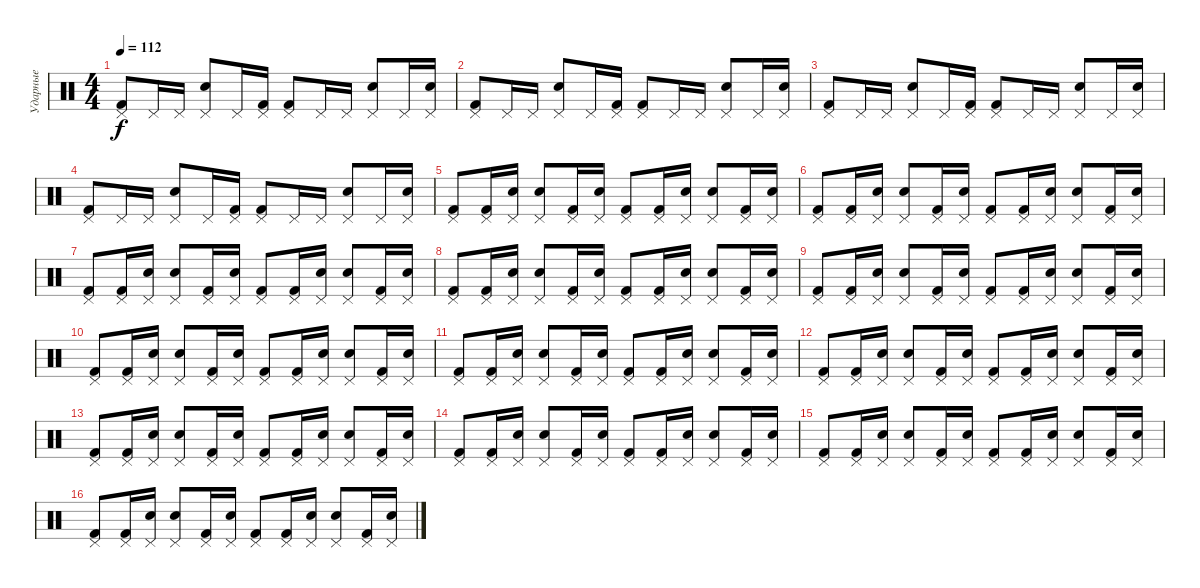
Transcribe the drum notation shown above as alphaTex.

\track ("Ударные" "Ударные") {instrument percussion}
\staff {score}
\articulation defaults
\ts (4 4)
\tempo 112
\clef neutral
\ks c
("Kick (hit) 2" "Pedal Hi-Hat (hit)").8{dy f} "Pedal Hi-Hat (hit)".16 "Pedal Hi-Hat (hit)".16 ("Pedal Hi-Hat (hit)" "Snare (hit) 2").8 "Pedal Hi-Hat (hit)".16 ("Pedal Hi-Hat (hit)" "Kick (hit) 2").16 ("Kick (hit) 2" "Pedal Hi-Hat (hit)").8 "Pedal Hi-Hat (hit)".16 "Pedal Hi-Hat (hit)".16 ("Snare (hit) 2" "Pedal Hi-Hat (hit)").8 "Pedal Hi-Hat (hit)".16 ("Pedal Hi-Hat (hit)" "Snare (hit) 2").16 |
("Kick (hit) 2" "Pedal Hi-Hat (hit)").8 "Pedal Hi-Hat (hit)".16 "Pedal Hi-Hat (hit)".16 ("Pedal Hi-Hat (hit)" "Snare (hit) 2").8 "Pedal Hi-Hat (hit)".16 ("Pedal Hi-Hat (hit)" "Kick (hit) 2").16 ("Kick (hit) 2" "Pedal Hi-Hat (hit)").8 "Pedal Hi-Hat (hit)".16 "Pedal Hi-Hat (hit)".16 ("Snare (hit) 2" "Pedal Hi-Hat (hit)").8 "Pedal Hi-Hat (hit)".16 ("Pedal Hi-Hat (hit)" "Snare (hit) 2").16 |
("Kick (hit) 2" "Pedal Hi-Hat (hit)").8 "Pedal Hi-Hat (hit)".16 "Pedal Hi-Hat (hit)".16 ("Pedal Hi-Hat (hit)" "Snare (hit) 2").8 "Pedal Hi-Hat (hit)".16 ("Pedal Hi-Hat (hit)" "Kick (hit) 2").16 ("Kick (hit) 2" "Pedal Hi-Hat (hit)").8 "Pedal Hi-Hat (hit)".16 "Pedal Hi-Hat (hit)".16 ("Snare (hit) 2" "Pedal Hi-Hat (hit)").8 "Pedal Hi-Hat (hit)".16 ("Pedal Hi-Hat (hit)" "Snare (hit) 2").16 |
("Kick (hit) 2" "Pedal Hi-Hat (hit)").8 "Pedal Hi-Hat (hit)".16 "Pedal Hi-Hat (hit)".16 ("Pedal Hi-Hat (hit)" "Snare (hit) 2").8 "Pedal Hi-Hat (hit)".16 ("Pedal Hi-Hat (hit)" "Kick (hit) 2").16 ("Kick (hit) 2" "Pedal Hi-Hat (hit)").8 "Pedal Hi-Hat (hit)".16 "Pedal Hi-Hat (hit)".16 ("Snare (hit) 2" "Pedal Hi-Hat (hit)").8 "Pedal Hi-Hat (hit)".16 ("Pedal Hi-Hat (hit)" "Snare (hit) 2").16 |
("Kick (hit) 2" "Pedal Hi-Hat (hit)").8 ("Kick (hit) 2" "Pedal Hi-Hat (hit)").16 ("Snare (hit) 2" "Pedal Hi-Hat (hit)").16 ("Snare (hit) 2" "Pedal Hi-Hat (hit)").8 ("Kick (hit) 2" "Pedal Hi-Hat (hit)").16 ("Snare (hit) 2" "Pedal Hi-Hat (hit)").16 ("Kick (hit) 2" "Pedal Hi-Hat (hit)").8 ("Kick (hit) 2" "Pedal Hi-Hat (hit)").16 ("Snare (hit) 2" "Pedal Hi-Hat (hit)").16 ("Snare (hit) 2" "Pedal Hi-Hat (hit)").8 ("Kick (hit) 2" "Pedal Hi-Hat (hit)").16 ("Snare (hit) 2" "Pedal Hi-Hat (hit)").16 |
("Kick (hit) 2" "Pedal Hi-Hat (hit)").8 ("Kick (hit) 2" "Pedal Hi-Hat (hit)").16 ("Snare (hit) 2" "Pedal Hi-Hat (hit)").16 ("Snare (hit) 2" "Pedal Hi-Hat (hit)").8 ("Kick (hit) 2" "Pedal Hi-Hat (hit)").16 ("Snare (hit) 2" "Pedal Hi-Hat (hit)").16 ("Kick (hit) 2" "Pedal Hi-Hat (hit)").8 ("Kick (hit) 2" "Pedal Hi-Hat (hit)").16 ("Snare (hit) 2" "Pedal Hi-Hat (hit)").16 ("Snare (hit) 2" "Pedal Hi-Hat (hit)").8 ("Kick (hit) 2" "Pedal Hi-Hat (hit)").16 ("Snare (hit) 2" "Pedal Hi-Hat (hit)").16 |
("Kick (hit) 2" "Pedal Hi-Hat (hit)").8 ("Kick (hit) 2" "Pedal Hi-Hat (hit)").16 ("Snare (hit) 2" "Pedal Hi-Hat (hit)").16 ("Snare (hit) 2" "Pedal Hi-Hat (hit)").8 ("Kick (hit) 2" "Pedal Hi-Hat (hit)").16 ("Snare (hit) 2" "Pedal Hi-Hat (hit)").16 ("Kick (hit) 2" "Pedal Hi-Hat (hit)").8 ("Kick (hit) 2" "Pedal Hi-Hat (hit)").16 ("Snare (hit) 2" "Pedal Hi-Hat (hit)").16 ("Snare (hit) 2" "Pedal Hi-Hat (hit)").8 ("Kick (hit) 2" "Pedal Hi-Hat (hit)").16 ("Snare (hit) 2" "Pedal Hi-Hat (hit)").16 |
("Kick (hit) 2" "Pedal Hi-Hat (hit)").8 ("Kick (hit) 2" "Pedal Hi-Hat (hit)").16 ("Snare (hit) 2" "Pedal Hi-Hat (hit)").16 ("Snare (hit) 2" "Pedal Hi-Hat (hit)").8 ("Kick (hit) 2" "Pedal Hi-Hat (hit)").16 ("Snare (hit) 2" "Pedal Hi-Hat (hit)").16 ("Kick (hit) 2" "Pedal Hi-Hat (hit)").8 ("Kick (hit) 2" "Pedal Hi-Hat (hit)").16 ("Snare (hit) 2" "Pedal Hi-Hat (hit)").16 ("Snare (hit) 2" "Pedal Hi-Hat (hit)").8 ("Kick (hit) 2" "Pedal Hi-Hat (hit)").16 ("Snare (hit) 2" "Pedal Hi-Hat (hit)").16 |
("Kick (hit) 2" "Pedal Hi-Hat (hit)").8 ("Kick (hit) 2" "Pedal Hi-Hat (hit)").16 ("Snare (hit) 2" "Pedal Hi-Hat (hit)").16 ("Snare (hit) 2" "Pedal Hi-Hat (hit)").8 ("Kick (hit) 2" "Pedal Hi-Hat (hit)").16 ("Snare (hit) 2" "Pedal Hi-Hat (hit)").16 ("Kick (hit) 2" "Pedal Hi-Hat (hit)").8 ("Kick (hit) 2" "Pedal Hi-Hat (hit)").16 ("Snare (hit) 2" "Pedal Hi-Hat (hit)").16 ("Snare (hit) 2" "Pedal Hi-Hat (hit)").8 ("Kick (hit) 2" "Pedal Hi-Hat (hit)").16 ("Snare (hit) 2" "Pedal Hi-Hat (hit)").16 |
("Kick (hit) 2" "Pedal Hi-Hat (hit)").8 ("Kick (hit) 2" "Pedal Hi-Hat (hit)").16 ("Snare (hit) 2" "Pedal Hi-Hat (hit)").16 ("Snare (hit) 2" "Pedal Hi-Hat (hit)").8 ("Kick (hit) 2" "Pedal Hi-Hat (hit)").16 ("Snare (hit) 2" "Pedal Hi-Hat (hit)").16 ("Kick (hit) 2" "Pedal Hi-Hat (hit)").8 ("Kick (hit) 2" "Pedal Hi-Hat (hit)").16 ("Snare (hit) 2" "Pedal Hi-Hat (hit)").16 ("Snare (hit) 2" "Pedal Hi-Hat (hit)").8 ("Kick (hit) 2" "Pedal Hi-Hat (hit)").16 ("Snare (hit) 2" "Pedal Hi-Hat (hit)").16 |
("Kick (hit) 2" "Pedal Hi-Hat (hit)").8 ("Kick (hit) 2" "Pedal Hi-Hat (hit)").16 ("Snare (hit) 2" "Pedal Hi-Hat (hit)").16 ("Snare (hit) 2" "Pedal Hi-Hat (hit)").8 ("Kick (hit) 2" "Pedal Hi-Hat (hit)").16 ("Snare (hit) 2" "Pedal Hi-Hat (hit)").16 ("Kick (hit) 2" "Pedal Hi-Hat (hit)").8 ("Kick (hit) 2" "Pedal Hi-Hat (hit)").16 ("Snare (hit) 2" "Pedal Hi-Hat (hit)").16 ("Snare (hit) 2" "Pedal Hi-Hat (hit)").8 ("Kick (hit) 2" "Pedal Hi-Hat (hit)").16 ("Snare (hit) 2" "Pedal Hi-Hat (hit)").16 |
("Kick (hit) 2" "Pedal Hi-Hat (hit)").8 ("Kick (hit) 2" "Pedal Hi-Hat (hit)").16 ("Snare (hit) 2" "Pedal Hi-Hat (hit)").16 ("Snare (hit) 2" "Pedal Hi-Hat (hit)").8 ("Kick (hit) 2" "Pedal Hi-Hat (hit)").16 ("Snare (hit) 2" "Pedal Hi-Hat (hit)").16 ("Kick (hit) 2" "Pedal Hi-Hat (hit)").8 ("Kick (hit) 2" "Pedal Hi-Hat (hit)").16 ("Snare (hit) 2" "Pedal Hi-Hat (hit)").16 ("Snare (hit) 2" "Pedal Hi-Hat (hit)").8 ("Kick (hit) 2" "Pedal Hi-Hat (hit)").16 ("Snare (hit) 2" "Pedal Hi-Hat (hit)").16 |
("Kick (hit) 2" "Pedal Hi-Hat (hit)").8 ("Kick (hit) 2" "Pedal Hi-Hat (hit)").16 ("Snare (hit) 2" "Pedal Hi-Hat (hit)").16 ("Snare (hit) 2" "Pedal Hi-Hat (hit)").8 ("Kick (hit) 2" "Pedal Hi-Hat (hit)").16 ("Snare (hit) 2" "Pedal Hi-Hat (hit)").16 ("Kick (hit) 2" "Pedal Hi-Hat (hit)").8 ("Kick (hit) 2" "Pedal Hi-Hat (hit)").16 ("Snare (hit) 2" "Pedal Hi-Hat (hit)").16 ("Snare (hit) 2" "Pedal Hi-Hat (hit)").8 ("Kick (hit) 2" "Pedal Hi-Hat (hit)").16 ("Snare (hit) 2" "Pedal Hi-Hat (hit)").16 |
("Kick (hit) 2" "Pedal Hi-Hat (hit)").8 ("Kick (hit) 2" "Pedal Hi-Hat (hit)").16 ("Snare (hit) 2" "Pedal Hi-Hat (hit)").16 ("Snare (hit) 2" "Pedal Hi-Hat (hit)").8 ("Kick (hit) 2" "Pedal Hi-Hat (hit)").16 ("Snare (hit) 2" "Pedal Hi-Hat (hit)").16 ("Kick (hit) 2" "Pedal Hi-Hat (hit)").8 ("Kick (hit) 2" "Pedal Hi-Hat (hit)").16 ("Snare (hit) 2" "Pedal Hi-Hat (hit)").16 ("Snare (hit) 2" "Pedal Hi-Hat (hit)").8 ("Kick (hit) 2" "Pedal Hi-Hat (hit)").16 ("Snare (hit) 2" "Pedal Hi-Hat (hit)").16 |
("Kick (hit) 2" "Pedal Hi-Hat (hit)").8 ("Kick (hit) 2" "Pedal Hi-Hat (hit)").16 ("Snare (hit) 2" "Pedal Hi-Hat (hit)").16 ("Snare (hit) 2" "Pedal Hi-Hat (hit)").8 ("Kick (hit) 2" "Pedal Hi-Hat (hit)").16 ("Snare (hit) 2" "Pedal Hi-Hat (hit)").16 ("Kick (hit) 2" "Pedal Hi-Hat (hit)").8 ("Kick (hit) 2" "Pedal Hi-Hat (hit)").16 ("Snare (hit) 2" "Pedal Hi-Hat (hit)").16 ("Snare (hit) 2" "Pedal Hi-Hat (hit)").8 ("Kick (hit) 2" "Pedal Hi-Hat (hit)").16 ("Snare (hit) 2" "Pedal Hi-Hat (hit)").16 |
("Kick (hit) 2" "Pedal Hi-Hat (hit)").8 ("Kick (hit) 2" "Pedal Hi-Hat (hit)").16 ("Snare (hit) 2" "Pedal Hi-Hat (hit)").16 ("Snare (hit) 2" "Pedal Hi-Hat (hit)").8 ("Kick (hit) 2" "Pedal Hi-Hat (hit)").16 ("Snare (hit) 2" "Pedal Hi-Hat (hit)").16 ("Kick (hit) 2" "Pedal Hi-Hat (hit)").8 ("Kick (hit) 2" "Pedal Hi-Hat (hit)").16 ("Snare (hit) 2" "Pedal Hi-Hat (hit)").16 ("Snare (hit) 2" "Pedal Hi-Hat (hit)").8 ("Kick (hit) 2" "Pedal Hi-Hat (hit)").16 ("Snare (hit) 2" "Pedal Hi-Hat (hit)").16
